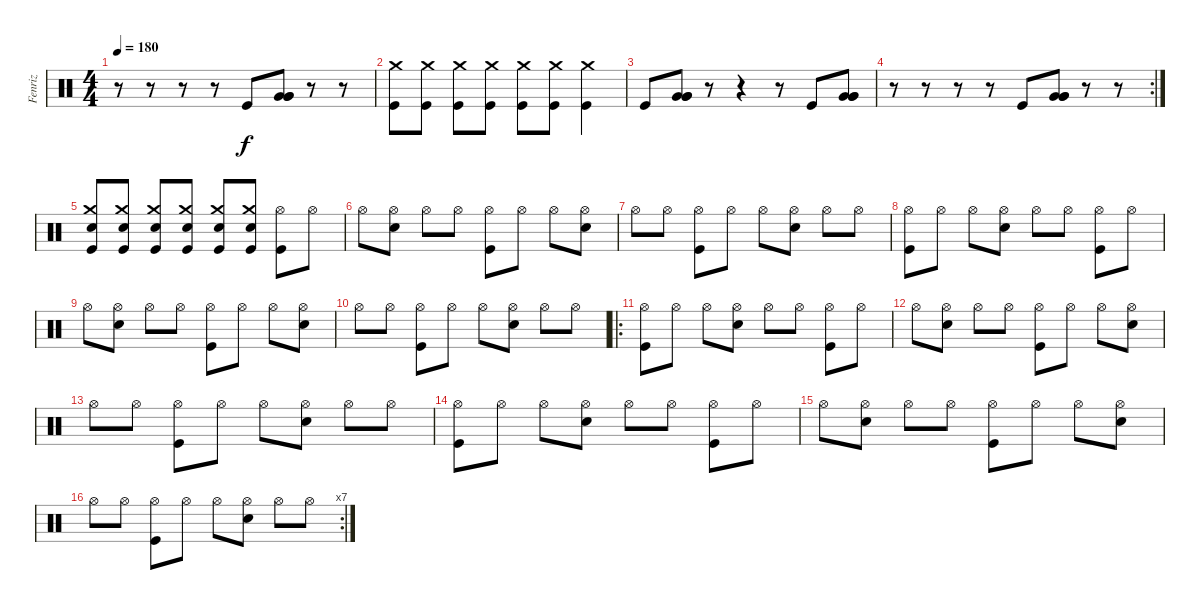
\track ("Fenriz" "Fenriz") {instrument percussion}
\staff {score}
\articulation defaults
\ts (4 4)
\tempo 180
\clef neutral
\ks c
r.8{dy f} r.8 r.8 r.8 "Kick (hit)".8 ("Very Low Tom (hit)" "Very Low Tom (hit)" "Very Low Tom (hit)").8 r.8 r.8 |
("Kick (hit)" "Crash medium (hit)").8 ("Kick (hit)" "Crash medium (hit)").8 ("Kick (hit)" "Crash medium (hit)").8 ("Kick (hit)" "Crash medium (hit)").8 ("Kick (hit)" "Crash medium (hit)").8 ("Kick (hit)" "Crash medium (hit)").8 ("Kick (hit)" "Crash medium (hit)").4 |
"Kick (hit)".8 ("Very Low Tom (hit)" "Very Low Tom (hit)" "Very Low Tom (hit)").8 r.8 r.4 r.8 "Kick (hit)".8 ("Very Low Tom (hit)" "Very Low Tom (hit)" "Very Low Tom (hit)").8 |
\rc 2
r.8 r.8 r.8 r.8 "Kick (hit)".8 ("Very Low Tom (hit)" "Very Low Tom (hit)" "Very Low Tom (hit)").8 r.8 r.8 |
("Snare (hit) 2" "Kick (hit)" "Crash medium (hit)").8 ("Snare (hit) 2" "Kick (hit)" "Crash medium (hit)").8 ("Snare (hit) 2" "Kick (hit)" "Crash medium (hit)").8 ("Snare (hit) 2" "Kick (hit)" "Crash medium (hit)").8 ("Snare (hit) 2" "Kick (hit)" "Crash medium (hit)").8 ("Snare (hit) 2" "Kick (hit)" "Crash medium (hit)").8 ("Hi-Hat (open)" "Kick (hit)").8 "Hi-Hat (open)".8 |
"Hi-Hat (open)".8 ("Hi-Hat (open)" "Snare (hit) 2").8 "Hi-Hat (open)".8 "Hi-Hat (open)".8 ("Hi-Hat (open)" "Kick (hit)").8 "Hi-Hat (open)".8 "Hi-Hat (open)".8 ("Hi-Hat (open)" "Snare (hit) 2").8 |
"Hi-Hat (open)".8 "Hi-Hat (open)".8 ("Hi-Hat (open)" "Kick (hit)").8 "Hi-Hat (open)".8 "Hi-Hat (open)".8 ("Hi-Hat (open)" "Snare (hit) 2").8 "Hi-Hat (open)".8 "Hi-Hat (open)".8 |
("Hi-Hat (open)" "Kick (hit)").8 "Hi-Hat (open)".8 "Hi-Hat (open)".8 ("Hi-Hat (open)" "Snare (hit) 2").8 "Hi-Hat (open)".8 "Hi-Hat (open)".8 ("Hi-Hat (open)" "Kick (hit)").8 "Hi-Hat (open)".8 |
"Hi-Hat (open)".8 ("Hi-Hat (open)" "Snare (hit) 2").8 "Hi-Hat (open)".8 "Hi-Hat (open)".8 ("Hi-Hat (open)" "Kick (hit)").8 "Hi-Hat (open)".8 "Hi-Hat (open)".8 ("Hi-Hat (open)" "Snare (hit) 2").8 |
"Hi-Hat (open)".8 "Hi-Hat (open)".8 ("Hi-Hat (open)" "Kick (hit)").8 "Hi-Hat (open)".8 "Hi-Hat (open)".8 ("Hi-Hat (open)" "Snare (hit) 2").8 "Hi-Hat (open)".8 "Hi-Hat (open)".8 |
\ro
("Hi-Hat (open)" "Kick (hit)").8 "Hi-Hat (open)".8 "Hi-Hat (open)".8 ("Hi-Hat (open)" "Snare (hit) 2").8 "Hi-Hat (open)".8 "Hi-Hat (open)".8 ("Hi-Hat (open)" "Kick (hit)").8 "Hi-Hat (open)".8 |
"Hi-Hat (open)".8 ("Hi-Hat (open)" "Snare (hit) 2").8 "Hi-Hat (open)".8 "Hi-Hat (open)".8 ("Hi-Hat (open)" "Kick (hit)").8 "Hi-Hat (open)".8 "Hi-Hat (open)".8 ("Hi-Hat (open)" "Snare (hit) 2").8 |
"Hi-Hat (open)".8 "Hi-Hat (open)".8 ("Hi-Hat (open)" "Kick (hit)").8 "Hi-Hat (open)".8 "Hi-Hat (open)".8 ("Hi-Hat (open)" "Snare (hit) 2").8 "Hi-Hat (open)".8 "Hi-Hat (open)".8 |
("Hi-Hat (open)" "Kick (hit)").8 "Hi-Hat (open)".8 "Hi-Hat (open)".8 ("Hi-Hat (open)" "Snare (hit) 2").8 "Hi-Hat (open)".8 "Hi-Hat (open)".8 ("Hi-Hat (open)" "Kick (hit)").8 "Hi-Hat (open)".8 |
"Hi-Hat (open)".8 ("Hi-Hat (open)" "Snare (hit) 2").8 "Hi-Hat (open)".8 "Hi-Hat (open)".8 ("Hi-Hat (open)" "Kick (hit)").8 "Hi-Hat (open)".8 "Hi-Hat (open)".8 ("Hi-Hat (open)" "Snare (hit) 2").8 |
\rc 7 "Hi-Hat (open)".8 "Hi-Hat (open)".8
("Hi-Hat (open)" "Kick (hit)").8 "Hi-Hat (open)".8 "Hi-Hat (open)".8 ("Hi-Hat (open)" "Snare (hit) 2").8 "Hi-Hat (open)".8 "Hi-Hat (open)".8
